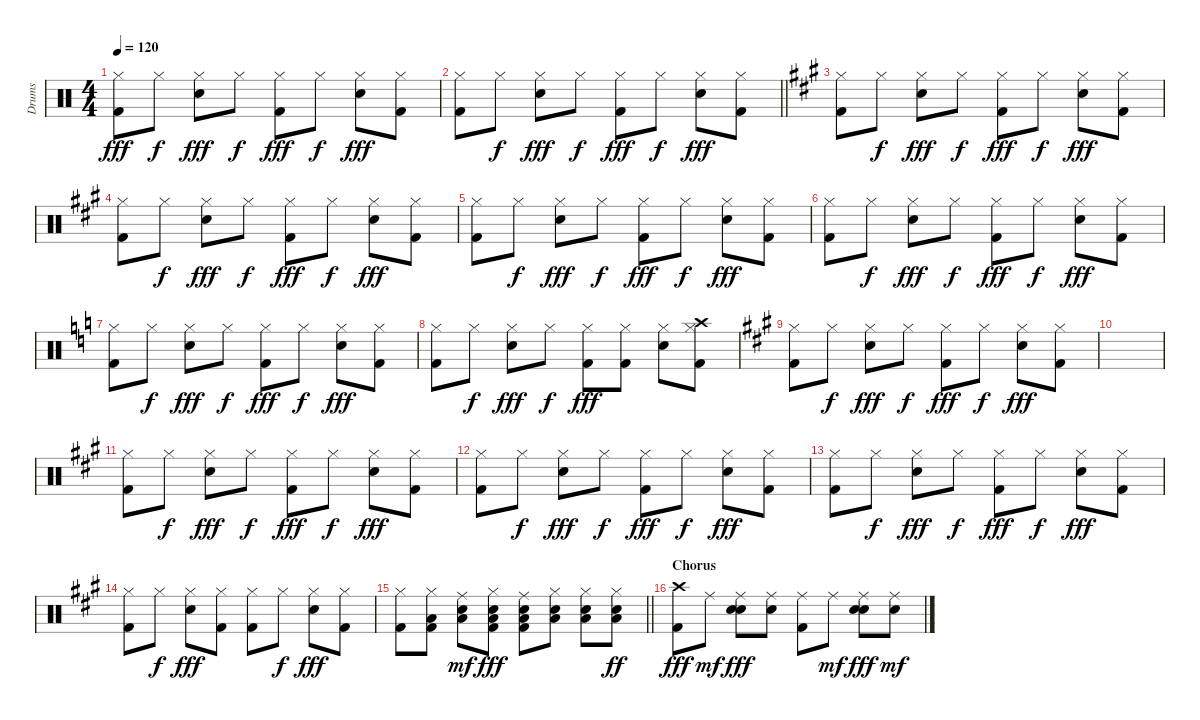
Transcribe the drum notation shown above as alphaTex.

\track ("Drums" "Drums") {instrument percussion}
\staff {score}
\articulation defaults
\ts (4 4)
\tempo 120
\clef neutral
\ks c
("Kick (hit) 2" "Hi-Hat (closed)").8{dy fff} "Hi-Hat (closed)".8{dy f} ("Hi-Hat (closed)" "Snare (hit) 2").8{dy fff} "Hi-Hat (closed)".8{dy f} ("Kick (hit) 2" "Hi-Hat (closed)").8{dy fff} "Hi-Hat (closed)".8{dy f} ("Hi-Hat (closed)" "Snare (hit) 2").8{dy fff} ("Hi-Hat (closed)" "Kick (hit) 2").8 |
\barLineRight lightlight
("Hi-Hat (closed)" "Kick (hit) 2").8 "Hi-Hat (closed)".8{dy f} ("Snare (hit) 2" "Hi-Hat (closed)").8{dy fff} "Hi-Hat (closed)".8{dy f} ("Kick (hit) 2" "Hi-Hat (closed)").8{dy fff} "Hi-Hat (closed)".8{dy f} ("Snare (hit) 2" "Hi-Hat (closed)").8{dy fff} ("Hi-Hat (closed)" "Kick (hit) 2").8 |
\ks a
("Kick (hit) 2" "Hi-Hat (closed)").8 "Hi-Hat (closed)".8{dy f} ("Hi-Hat (closed)" "Snare (hit) 2").8{dy fff} "Hi-Hat (closed)".8{dy f} ("Kick (hit) 2" "Hi-Hat (closed)").8{dy fff} "Hi-Hat (closed)".8{dy f} ("Snare (hit) 2" "Hi-Hat (closed)").8{dy fff} ("Kick (hit) 2" "Hi-Hat (closed)").8 |
("Kick (hit) 2" "Hi-Hat (closed)").8 "Hi-Hat (closed)".8{dy f} ("Hi-Hat (closed)" "Snare (hit) 2").8{dy fff} "Hi-Hat (closed)".8{dy f} ("Kick (hit) 2" "Hi-Hat (closed)").8{dy fff} "Hi-Hat (closed)".8{dy f} ("Snare (hit) 2" "Hi-Hat (closed)").8{dy fff} ("Kick (hit) 2" "Hi-Hat (closed)").8 |
("Hi-Hat (closed)" "Kick (hit) 2").8 "Hi-Hat (closed)".8{dy f} ("Snare (hit) 2" "Hi-Hat (closed)").8{dy fff} "Hi-Hat (closed)".8{dy f} ("Kick (hit) 2" "Hi-Hat (closed)").8{dy fff} "Hi-Hat (closed)".8{dy f} ("Hi-Hat (closed)" "Snare (hit) 2").8{dy fff} ("Hi-Hat (closed)" "Kick (hit) 2").8 |
("Kick (hit) 2" "Hi-Hat (closed)").8 "Hi-Hat (closed)".8{dy f} ("Snare (hit) 2" "Hi-Hat (closed)").8{dy fff} "Hi-Hat (closed)".8{dy f} ("Kick (hit) 2" "Hi-Hat (closed)").8{dy fff} "Hi-Hat (closed)".8{dy f} ("Hi-Hat (closed)" "Snare (hit) 2").8{dy fff} ("Kick (hit) 2" "Hi-Hat (closed)").8 |
\ks c
("Hi-Hat (closed)" "Kick (hit) 2").8 "Hi-Hat (closed)".8{dy f} ("Hi-Hat (closed)" "Snare (hit) 2").8{dy fff} "Hi-Hat (closed)".8{dy f} ("Kick (hit) 2" "Hi-Hat (closed)").8{dy fff} "Hi-Hat (closed)".8{dy f} ("Snare (hit) 2" "Hi-Hat (closed)").8{dy fff} ("Kick (hit) 2" "Hi-Hat (closed)").8 |
("Kick (hit) 2" "Hi-Hat (closed)").8 "Hi-Hat (closed)".8{dy f} ("Hi-Hat (closed)" "Snare (hit) 2").8{dy fff} "Hi-Hat (closed)".8{dy f} ("Hi-Hat (closed)" "Kick (hit) 2").8{dy fff} ("Hi-Hat (closed)" "Kick (hit) 2").8 ("Snare (hit) 2" "Hi-Hat (closed)").8 ("Crash high (hit)" "Hi-Hat (closed)" "Kick (hit) 2").8 |
\ks a
("Kick (hit) 2" "Hi-Hat (closed)").8 "Hi-Hat (closed)".8{dy f} ("Hi-Hat (closed)" "Snare (hit) 2").8{dy fff} "Hi-Hat (closed)".8{dy f} ("Hi-Hat (closed)" "Kick (hit) 2").8{dy fff} "Hi-Hat (closed)".8{dy f} ("Snare (hit) 2" "Hi-Hat (closed)").8{dy fff} ("Hi-Hat (closed)" "Kick (hit) 2").8 |
|
("Kick (hit) 2" "Hi-Hat (closed)").8 "Hi-Hat (closed)".8{dy f} ("Snare (hit) 2" "Hi-Hat (closed)").8{dy fff} "Hi-Hat (closed)".8{dy f} ("Hi-Hat (closed)" "Kick (hit) 2").8{dy fff} "Hi-Hat (closed)".8{dy f} ("Hi-Hat (closed)" "Snare (hit) 2").8{dy fff} ("Hi-Hat (closed)" "Kick (hit) 2").8 |
("Hi-Hat (closed)" "Kick (hit) 2").8 "Hi-Hat (closed)".8{dy f} ("Hi-Hat (closed)" "Snare (hit) 2").8{dy fff} "Hi-Hat (closed)".8{dy f} ("Hi-Hat (closed)" "Kick (hit) 2").8{dy fff} "Hi-Hat (closed)".8{dy f} ("Hi-Hat (closed)" "Snare (hit) 2").8{dy fff} ("Kick (hit) 2" "Hi-Hat (closed)").8 |
("Kick (hit) 2" "Hi-Hat (closed)").8 "Hi-Hat (closed)".8{dy f} ("Snare (hit) 2" "Hi-Hat (closed)").8{dy fff} "Hi-Hat (closed)".8{dy f} ("Hi-Hat (closed)" "Kick (hit) 2").8{dy fff} "Hi-Hat (closed)".8{dy f} ("Hi-Hat (closed)" "Snare (hit) 2").8{dy fff} ("Hi-Hat (closed)" "Kick (hit) 2").8 |
("Kick (hit) 2" "Hi-Hat (closed)").8 "Hi-Hat (closed)".8{dy f} ("Hi-Hat (closed)" "Snare (hit) 2").8{dy fff} ("Kick (hit) 2" "Hi-Hat (closed)").8 ("Kick (hit) 2" "Hi-Hat (closed)").8 "Hi-Hat (closed)".8{dy f} ("Hi-Hat (closed)" "Snare (hit) 2").8{dy fff} ("Hi-Hat (closed)" "Kick (hit) 2").8 |
\barLineRight lightlight
("Hi-Hat (closed)" "Kick (hit) 2").8 ("Hi-Hat (closed)" "Low Floor Tom (hit)" "Kick (hit) 2").8 ("Snare (hit) 2" "Low Floor Tom (hit)" "Ride (middle)").8{dy mf} ("Hi-Hat (closed)" "Low Floor Tom (hit)" "Kick (hit) 2" "Snare (hit) 2").8{dy fff} ("Low Floor Tom (hit)" "Ride (middle)" "Snare (hit) 2" "Kick (hit) 2").8 ("Hi-Hat (closed)" "Low Floor Tom (hit)" "Snare (hit) 2").8 ("Hi-Hat (closed)" "Low Floor Tom (hit)" "Snare (hit) 2").8 ("Snare (hit) 2" "Low Floor Tom (hit)" "Hi-Hat (closed)").8{dy ff} |
\section ("" "Chorus")
("Kick (hit) 2" "Crash high (hit)").8{dy fff} "Ride (middle)".8{dy mf} ("Snare (hit) 2" "Ride (middle)" "Hand Clap (hit)").8{dy fff} ("Ride (middle)" "Hand Clap (hit)").8 ("Ride (middle)" "Kick (hit) 2").8 "Ride (middle)".8{dy mf} ("Snare (hit) 2" "Ride (middle)" "Hand Clap (hit)").8{dy fff} ("Snare (hit) 2" "Ride (middle)").8{dy mf}
